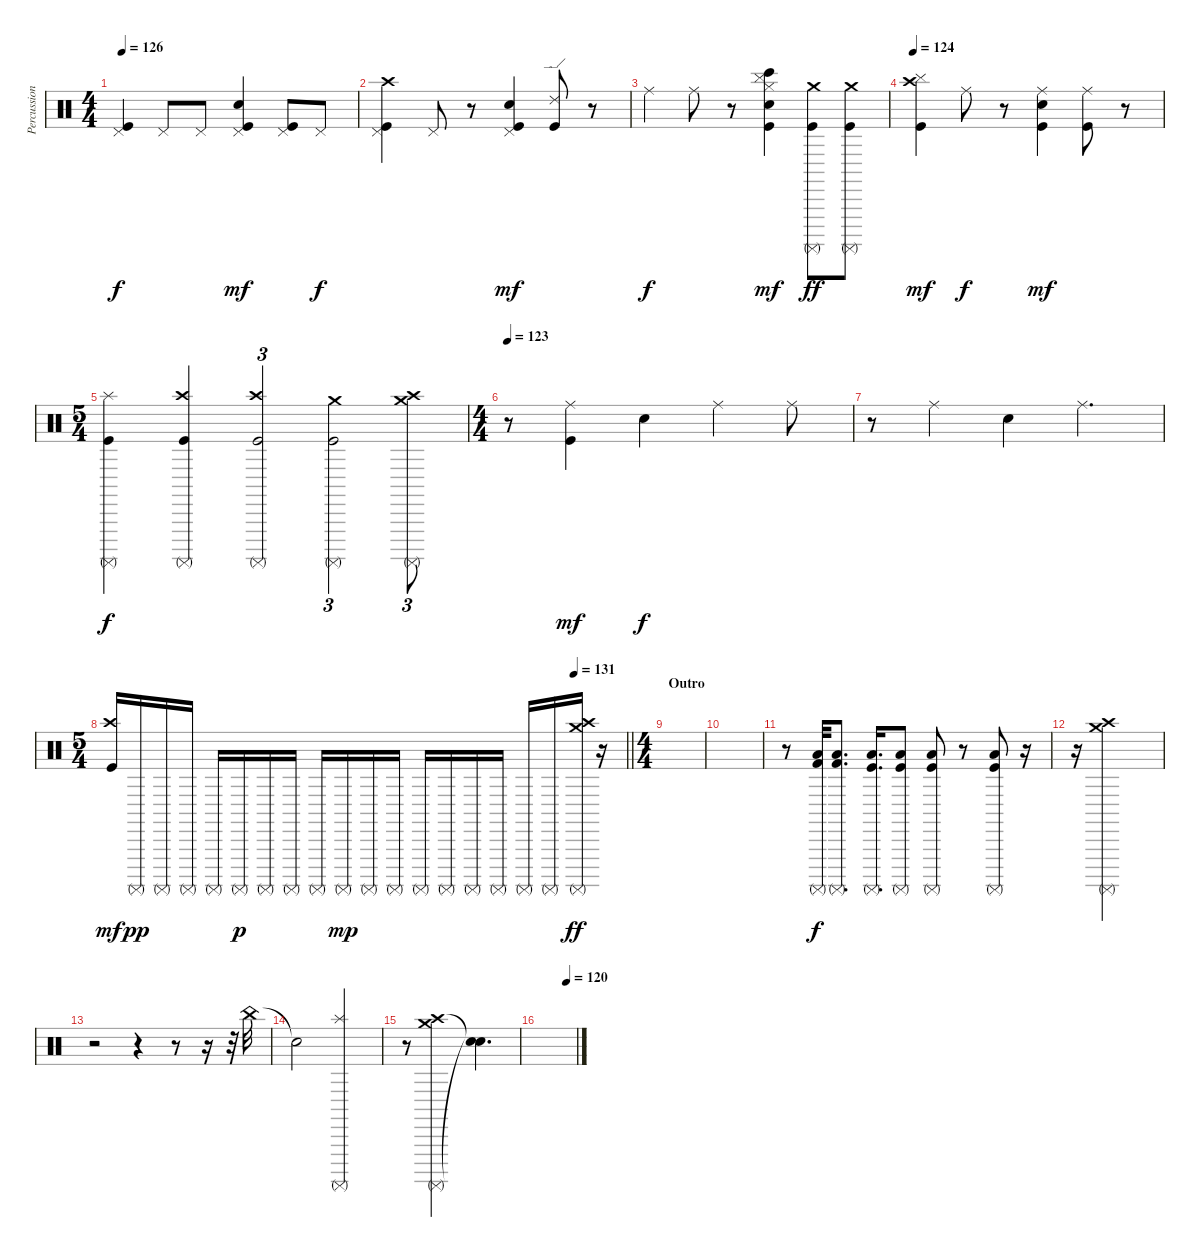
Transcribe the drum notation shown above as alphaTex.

\track ("Percussion" "Percussion") {instrument percussion}
\staff {score}
\articulation defaults
\ts (4 4)
\tempo 126
\clef neutral
\ks c
("Pedal Hi-Hat (hit)" "Kick (hit)").4{dy f} "Pedal Hi-Hat (hit)".8 "Pedal Hi-Hat (hit)".8 ("Pedal Hi-Hat (hit)" "Kick (hit)" "Electric Snare (hit)").4{dy mf} ("Pedal Hi-Hat (hit)" "Kick (hit)").8 "Pedal Hi-Hat (hit)".8{dy f} |
("Pedal Hi-Hat (hit)" "Kick (hit)" "Crash high (hit)").4 "Pedal Hi-Hat (hit)".8 r.8 ("Pedal Hi-Hat (hit)" "Kick (hit)" "Electric Snare (hit)").4{dy mf} ("Ride (edge) 2" "Kick (hit)").8 r.8 |
"Ride (middle)".4{dy f} "Ride (middle)".8 r.8 ("Bongo High (hit)" "Cymbal (hit)" "Hi-Hat (closed)" "Kick (hit)" "Electric Snare (hit)").4{dy mf} ("Kick (hit)" "Surdo (mute)" "Crash medium (hit)").8{dy ff} ("Kick (hit)" "Surdo (mute)" "Crash medium (hit)").8 |
\tempo 124
("Cymbal (hit)" "Kick (hit)" "Crash high (hit)").4{dy mf} "Ride (middle)".8{dy f} r.8 ("Ride (middle)" "Kick (hit)" "Electric Snare (hit)").4{dy mf} ("Ride (middle)" "Kick (hit)").8 r.8 |
\ts (5 4)
("Splash (hit)" "Kick (hit)" "Surdo (mute)").4{dy f} ("Crash high (hit)" "Kick (hit)" "Surdo (mute)").4 ("Crash high (hit)" "Kick (hit)" "Surdo (mute)").2{tu (3 2)} ("Crash medium (hit)" "Kick (hit)" "Surdo (mute)").2{tu (3 2)} ("Crash medium (hit)" "Crash high (hit)" "Surdo (mute)").8{tu (3 2)} |
\ts (4 4)
\tempo 123
r.8 ("Ride (middle)" "Kick (hit)").4{dy mf} "Electric Snare (hit)".4{dy f} "Ride (middle)".4 "Ride (middle)".8 |
r.8 "Ride (middle)".4 "Electric Snare (hit)".4 "Ride (middle)".4{d} |
\ts (5 4)
\tempo (131 0.9)
\barLineRight lightlight
("Kick (hit)" "Crash high (hit)").16{dy mf} "Surdo (mute)".16{dy pp} "Surdo (mute)".16 "Surdo (mute)".16 "Surdo (mute)".16 "Surdo (mute)".16{dy p} "Surdo (mute)".16 "Surdo (mute)".16 "Surdo (mute)".16 "Surdo (mute)".16{dy mp} "Surdo (mute)".16 "Surdo (mute)".16 "Surdo (mute)".16 "Surdo (mute)".16 "Surdo (mute)".16 "Surdo (mute)".16 "Surdo (mute)".16 "Surdo (mute)".16 ("Surdo (mute)" "Crash high (hit)" "Crash medium (hit)").16{dy ff} r.16 |
\ts (4 4)
\section ("" "Outro")
|
|
r.8 ("Surdo (mute)" "Low Floor Tom (hit)" "Kick (hit) 2").32{dy f} ("Surdo (mute)" "Low Floor Tom (hit)" "Kick (hit) 2").8{d} ("Surdo (mute)" "Low Floor Tom (hit)" "Kick (hit)").16{d} ("Surdo (mute)" "Low Floor Tom (hit)" "Kick (hit)").8 ("Surdo (mute)" "Low Floor Tom (hit)" "Kick (hit)").8 r.8 ("Surdo (mute)" "Low Floor Tom (hit)" "Kick (hit)").8 r.16 |
r.16 ("Surdo (mute)" "Crash high (hit)" "Crash medium (hit)").2 |
r.2 r.4 r.8 r.16 r.32 "China (hit)".32 |
"Snare (hit)"{t}.2 ("Surdo (mute)" "Splash (hit)").2 |
r.8 ("Surdo (mute)" "Crash high (hit)" "Crash medium (hit)").2 ("Snare (hit)"{t} "Snare (hit)"{t}).4{d} |
\tempo (120 0.75)
